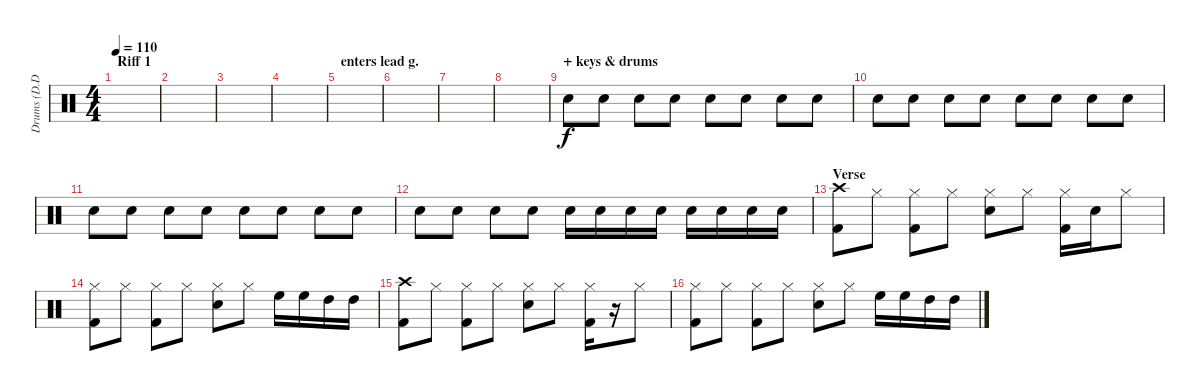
\track ("Drums (D.D. Bucco)" "Drums (D.D") {instrument percussion}
\staff {score}
\articulation defaults
\ts (4 4)
\section ("" "Riff 1")
\tempo 110
\clef neutral
\ks c
|
|
|
|
\section ("" "enters lead g.")
|
|
|
|
\section ("" "+ keys & drums")
"Snare (hit) 2".8{volume 7} "Snare (hit) 2".8{volume 16} "Snare (hit) 2".8 "Snare (hit) 2".8 "Snare (hit) 2".8 "Snare (hit) 2".8 "Snare (hit) 2".8 "Snare (hit) 2".8 |
"Snare (hit) 2".8 "Snare (hit) 2".8 "Snare (hit) 2".8 "Snare (hit) 2".8 "Snare (hit) 2".8 "Snare (hit) 2".8 "Snare (hit) 2".8 "Snare (hit) 2".8 |
"Snare (hit) 2".8 "Snare (hit) 2".8 "Snare (hit) 2".8 "Snare (hit) 2".8 "Snare (hit) 2".8 "Snare (hit) 2".8 "Snare (hit) 2".8 "Snare (hit) 2".8 |
"Snare (hit) 2".8 "Snare (hit) 2".8 "Snare (hit) 2".8 "Snare (hit) 2".8 "Snare (hit) 2".16 "Snare (hit) 2".16 "Snare (hit) 2".16 "Snare (hit) 2".16 "Snare (hit) 2".16 "Snare (hit) 2".16 "Snare (hit) 2".16 "Snare (hit) 2".16 |
\section ("" "Verse")
("Crash high (hit)" "Kick (hit) 2").8{volume 16} "Hi-Hat (closed)".8 ("Hi-Hat (closed)" "Kick (hit) 2").8 "Hi-Hat (closed)".8 ("Hi-Hat (closed)" "Snare (hit) 2").8 "Hi-Hat (closed)".8 ("Hi-Hat (closed)" "Kick (hit) 2").16 "Snare (hit) 2".16 "Hi-Hat (closed)".8 |
("Hi-Hat (closed)" "Kick (hit) 2").8 "Hi-Hat (closed)".8 ("Hi-Hat (closed)" "Kick (hit) 2").8 "Hi-Hat (closed)".8 ("Hi-Hat (closed)" "Snare (hit) 2").8 "Hi-Hat (closed)".8 "High Floor Tom (hit)".16 "High Floor Tom (hit)".16 "High Tom (hit)".16 "High Tom (hit)".16 |
("Crash high (hit)" "Kick (hit) 2").8 "Hi-Hat (closed)".8 ("Hi-Hat (closed)" "Kick (hit) 2").8 "Hi-Hat (closed)".8 ("Hi-Hat (closed)" "Snare (hit) 2").8 "Hi-Hat (closed)".8 ("Hi-Hat (closed)" "Kick (hit) 2").16 r.16 "Hi-Hat (closed)".8 |
("Hi-Hat (closed)" "Kick (hit) 2").8 "Hi-Hat (closed)".8 ("Hi-Hat (closed)" "Kick (hit) 2").8 "Hi-Hat (closed)".8 ("Hi-Hat (closed)" "Snare (hit) 2").8 "Hi-Hat (closed)".8 "High Floor Tom (hit)".16 "High Floor Tom (hit)".16 "High Tom (hit)".16 "High Tom (hit)".16
